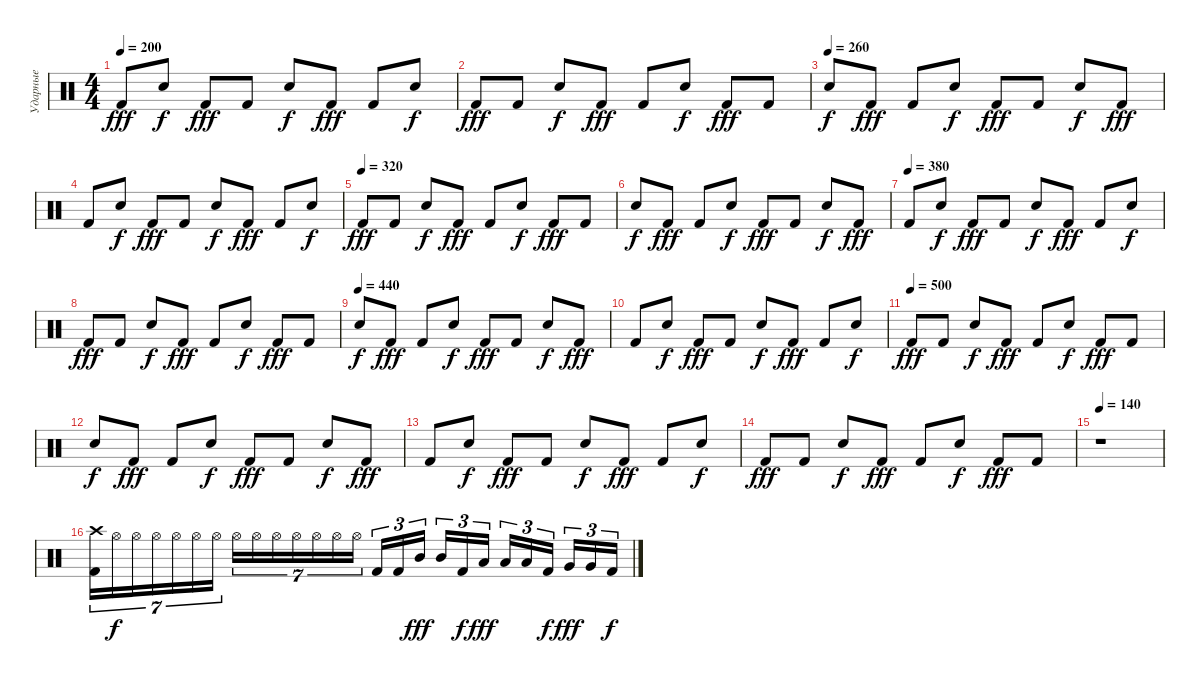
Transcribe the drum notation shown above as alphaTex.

\track ("Ударные" "Ударные") {instrument percussion}
\staff
\articulation defaults
\ts (4 4)
\tempo 200
\clef neutral
\ks c "Kick (hit) 2".8{dy fff} "Snare (hit) 2".8{dy f} "Kick (hit) 2".8{dy fff} "Kick (hit) 2".8 "Snare (hit) 2".8{dy f} "Kick (hit) 2".8{dy fff} "Kick (hit) 2".8 "Snare (hit) 2".8{dy f}
|
"Kick (hit) 2".8{dy fff} "Kick (hit) 2".8 "Snare (hit) 2".8{dy f} "Kick (hit) 2".8{dy fff} "Kick (hit) 2".8 "Snare (hit) 2".8{dy f} "Kick (hit) 2".8{dy fff} "Kick (hit) 2".8 |
\tempo (260)
"Snare (hit) 2".8{dy f} "Kick (hit) 2".8{dy fff} "Kick (hit) 2".8 "Snare (hit) 2".8{dy f} "Kick (hit) 2".8{dy fff} "Kick (hit) 2".8 "Snare (hit) 2".8{dy f} "Kick (hit) 2".8{dy fff} |
"Kick (hit) 2".8 "Snare (hit) 2".8{dy f} "Kick (hit) 2".8{dy fff} "Kick (hit) 2".8 "Snare (hit) 2".8{dy f} "Kick (hit) 2".8{dy fff} "Kick (hit) 2".8 "Snare (hit) 2".8{dy f} |
\tempo (320)
"Kick (hit) 2".8{dy fff} "Kick (hit) 2".8 "Snare (hit) 2".8{dy f} "Kick (hit) 2".8{dy fff} "Kick (hit) 2".8 "Snare (hit) 2".8{dy f} "Kick (hit) 2".8{dy fff} "Kick (hit) 2".8 |
"Snare (hit) 2".8{dy f} "Kick (hit) 2".8{dy fff} "Kick (hit) 2".8 "Snare (hit) 2".8{dy f} "Kick (hit) 2".8{dy fff} "Kick (hit) 2".8 "Snare (hit) 2".8{dy f} "Kick (hit) 2".8{dy fff} |
\tempo (380)
"Kick (hit) 2".8 "Snare (hit) 2".8{dy f} "Kick (hit) 2".8{dy fff} "Kick (hit) 2".8 "Snare (hit) 2".8{dy f} "Kick (hit) 2".8{dy fff} "Kick (hit) 2".8 "Snare (hit) 2".8{dy f} |
"Kick (hit) 2".8{dy fff} "Kick (hit) 2".8 "Snare (hit) 2".8{dy f} "Kick (hit) 2".8{dy fff} "Kick (hit) 2".8 "Snare (hit) 2".8{dy f} "Kick (hit) 2".8{dy fff} "Kick (hit) 2".8 |
\tempo (440)
"Snare (hit) 2".8{dy f} "Kick (hit) 2".8{dy fff} "Kick (hit) 2".8 "Snare (hit) 2".8{dy f} "Kick (hit) 2".8{dy fff} "Kick (hit) 2".8 "Snare (hit) 2".8{dy f} "Kick (hit) 2".8{dy fff} |
"Kick (hit) 2".8 "Snare (hit) 2".8{dy f} "Kick (hit) 2".8{dy fff} "Kick (hit) 2".8 "Snare (hit) 2".8{dy f} "Kick (hit) 2".8{dy fff} "Kick (hit) 2".8 "Snare (hit) 2".8{dy f} |
\tempo (500)
"Kick (hit) 2".8{dy fff} "Kick (hit) 2".8 "Snare (hit) 2".8{dy f} "Kick (hit) 2".8{dy fff} "Kick (hit) 2".8 "Snare (hit) 2".8{dy f} "Kick (hit) 2".8{dy fff} "Kick (hit) 2".8 |
"Snare (hit) 2".8{dy f} "Kick (hit) 2".8{dy fff} "Kick (hit) 2".8 "Snare (hit) 2".8{dy f} "Kick (hit) 2".8{dy fff} "Kick (hit) 2".8 "Snare (hit) 2".8{dy f} "Kick (hit) 2".8{dy fff} |
"Kick (hit) 2".8 "Snare (hit) 2".8{dy f} "Kick (hit) 2".8{dy fff} "Kick (hit) 2".8 "Snare (hit) 2".8{dy f} "Kick (hit) 2".8{dy fff} "Kick (hit) 2".8 "Snare (hit) 2".8{dy f} |
"Kick (hit) 2".8{dy fff} "Kick (hit) 2".8 "Snare (hit) 2".8{dy f} "Kick (hit) 2".8{dy fff} "Kick (hit) 2".8 "Snare (hit) 2".8{dy f} "Kick (hit) 2".8{dy fff} "Kick (hit) 2".8 |
\tempo 140
r.1 |
("Kick (hit) 2" "Crash high (hit)").16{tu (7 4)} "Hi-Hat (open)".16{tu (7 4) dy f} "Hi-Hat (open)".16{tu (7 4)} "Hi-Hat (open)".16{tu (7 4)} "Hi-Hat (open)".16{tu (7 4)} "Hi-Hat (open)".16{tu (7 4)} "Hi-Hat (open)".16{tu (7 4)} "Hi-Hat (open)".16{tu (7 4)} "Hi-Hat (open)".16{tu (7 4)} "Hi-Hat (open)".16{tu (7 4)} "Hi-Hat (open)".16{tu (7 4)} "Hi-Hat (open)".16{tu (7 4)} "Hi-Hat (open)".16{tu (7 4)} "Hi-Hat (open)".16{tu (7 4)} "Kick (hit) 2".16{tu (3 2)} "Kick (hit) 2".16{tu (3 2)} "Mid Tom (hit)".16{tu (3 2) dy fff beam splitsecondary} "Mid Tom (hit)".16{tu (3 2)} "Kick (hit) 2".16{tu (3 2) dy f} "Low Tom (hit)".16{tu (3 2) dy fff} "Low Tom (hit)".16{tu (3 2)} "Low Tom (hit)".16{tu (3 2)} "Kick (hit) 2".16{tu (3 2) dy f beam splitsecondary} "Very Low Tom (hit)".16{tu (3 2) dy fff} "Very Low Tom (hit)".16{tu (3 2)} "Kick (hit) 2".16{tu (3 2) dy f}
